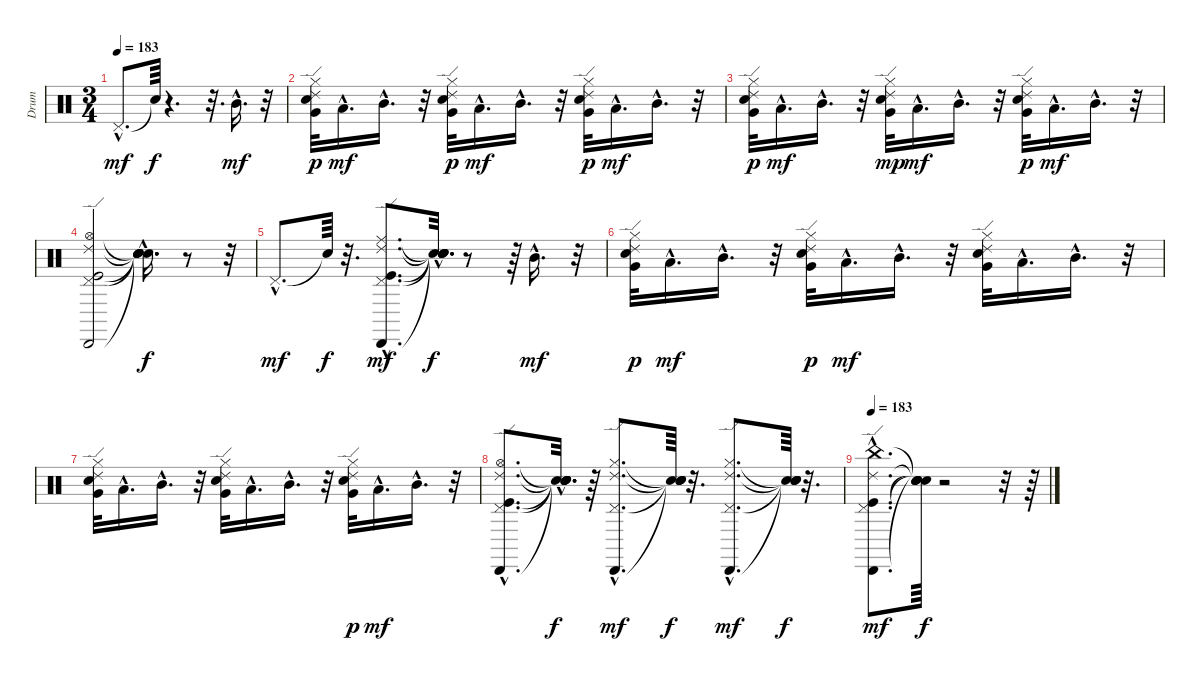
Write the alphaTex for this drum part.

\track ("Drum" "Drum") {instrument percussion}
\staff {score}
\articulation defaults
\ts (3 4)
\tempo 183
\clef neutral
\ks c "Pedal Hi-Hat (hit)"{hac}.8{d dy mf} "Snare (hit)"{t}.64{dy f}
r.4{d} r.32{d} "Mid Tom (hit)"{hac}.16{d dy mf} r.32 |
("Very Low Tom (hit)" "Ride (edge) 2" "Electric Snare (hit)" "Hi-Hat (closed)").32{dy p} "Low Tom (hit)"{hac}.16{d dy mf} "Mid Tom (hit)"{hac}.16{d} r.32 ("Very Low Tom (hit)" "Ride (edge) 2" "Hi-Hat (closed)" "Electric Snare (hit)").32{dy p} "Low Tom (hit)"{hac}.16{d dy mf} "Mid Tom (hit)"{hac}.16{d} r.32 ("Ride (edge) 2" "Electric Snare (hit)" "Very Low Tom (hit)" "Hi-Hat (closed)").32{dy p} "Low Tom (hit)"{hac}.16{d dy mf} "Mid Tom (hit)"{hac}.16{d} r.32 |
("Very Low Tom (hit)" "Electric Snare (hit)" "Ride (edge) 2" "Hi-Hat (closed)").32{dy p} "Low Tom (hit)"{hac}.16{d dy mf} "Mid Tom (hit)"{hac}.16{d} r.32 ("Very Low Tom (hit)" "Electric Snare (hit)" "Hi-Hat (closed)" "Ride (edge) 2").32{dy mp} "Low Tom (hit)"{hac}.16{d dy mf} "Mid Tom (hit)"{hac}.16{d} r.32 ("Hi-Hat (closed)" "Very Low Tom (hit)" "Ride (edge) 2" "Electric Snare (hit)").32{dy p} "Low Tom (hit)"{hac}.16{d dy mf} "Mid Tom (hit)"{hac}.16{d} r.32 |
("Cabasa (hit)" "Hi-Hat (open)" "Ride (edge) 2" "Pedal Hi-Hat (hit)" "Kick (hit)").2 ("Snare (hit)"{hac t} "Snare (hit)"{hac t} "Snare (hit)"{hac t} "Snare (hit)"{hac t} "Snare (hit)"{hac t}).16{d dy f} r.8 r.32 |
"Pedal Hi-Hat (hit)"{hac}.8{d dy mf} "Snare (hit)"{t}.64{dy f} r.32{d} ("Ride (middle)"{hac} "Pedal Hi-Hat (hit)"{hac} "Cabasa (hit)"{hac} "Ride (edge) 2"{hac} "Kick (hit)"{hac}).8{d dy mf} ("Snare (hit)"{hac t} "Snare (hit)"{hac t} "Snare (hit)"{hac t} "Snare (hit)"{hac t} "Snare (hit)"{hac t}).32{d dy f} r.8 r.64 "Mid Tom (hit)"{hac}.16{d dy mf} r.32 |
("Electric Snare (hit)" "Very Low Tom (hit)" "Ride (edge) 2" "Hi-Hat (closed)").32{dy p} "Low Tom (hit)"{hac}.16{d dy mf} "Mid Tom (hit)"{hac}.16{d} r.32 ("Hi-Hat (closed)" "Very Low Tom (hit)" "Ride (edge) 2" "Electric Snare (hit)").32{dy p} "Low Tom (hit)"{hac}.16{d dy mf} "Mid Tom (hit)"{hac}.16{d} r.32 ("Electric Snare (hit)" "Ride (edge) 2" "Hi-Hat (closed)" "Very Low Tom (hit)").32 "Low Tom (hit)"{hac}.16{d} "Mid Tom (hit)"{hac}.16{d} r.32 |
("Hi-Hat (closed)" "Ride (edge) 2" "Electric Snare (hit)" "Very Low Tom (hit)").32 "Low Tom (hit)"{hac}.16{d} "Mid Tom (hit)"{hac}.16{d} r.32 ("Ride (edge) 2" "Hi-Hat (closed)" "Electric Snare (hit)" "Very Low Tom (hit)").32 "Low Tom (hit)"{hac}.16{d} "Mid Tom (hit)"{hac}.16{d} r.32 ("Electric Snare (hit)" "Ride (edge) 2" "Very Low Tom (hit)" "Hi-Hat (closed)").32{dy p} "Low Tom (hit)"{hac}.16{d dy mf} "Mid Tom (hit)"{hac}.16{d} r.32 |
("Kick (hit)"{hac} "Pedal Hi-Hat (hit)"{hac} "Ride (edge) 2"{hac} "Hi-Hat (open)"{hac} "Cabasa (hit)"{hac}).8{d} ("Snare (hit)"{hac t} "Snare (hit)"{hac t} "Snare (hit)"{hac t} "Snare (hit)"{hac t} "Snare (hit)"{hac t}).32{d dy f} r.64 ("Cabasa (hit)"{hac} "Ride (edge) 2"{hac} "Hi-Hat (closed)"{hac} "Pedal Hi-Hat (hit)"{hac}).8{d dy mf} ("Snare (hit)"{t} "Snare (hit)"{t} "Snare (hit)"{t} "Snare (hit)"{t}).64{dy f} r.32{d} ("Cabasa (hit)"{hac} "Ride (edge) 2"{hac} "Hi-Hat (closed)"{hac} "Pedal Hi-Hat (hit)"{hac}).8{d dy mf} ("Snare (hit)"{t} "Snare (hit)"{t} "Snare (hit)"{t} "Snare (hit)"{t}).64{dy f} r.32{d} |
\tempo 183
("Pedal Hi-Hat (hit)"{hac} "China (hit)"{hac} "Kick (hit)"{hac} "Ride (edge) 2"{hac} "Cabasa (hit)"{hac}).8{d dy mf} ("Snare (hit)"{t} "Snare (hit)"{t} "Snare (hit)"{t} "Snare (hit)"{t} "Snare (hit)"{t}).64{dy f} r.2 r.32 r.64
